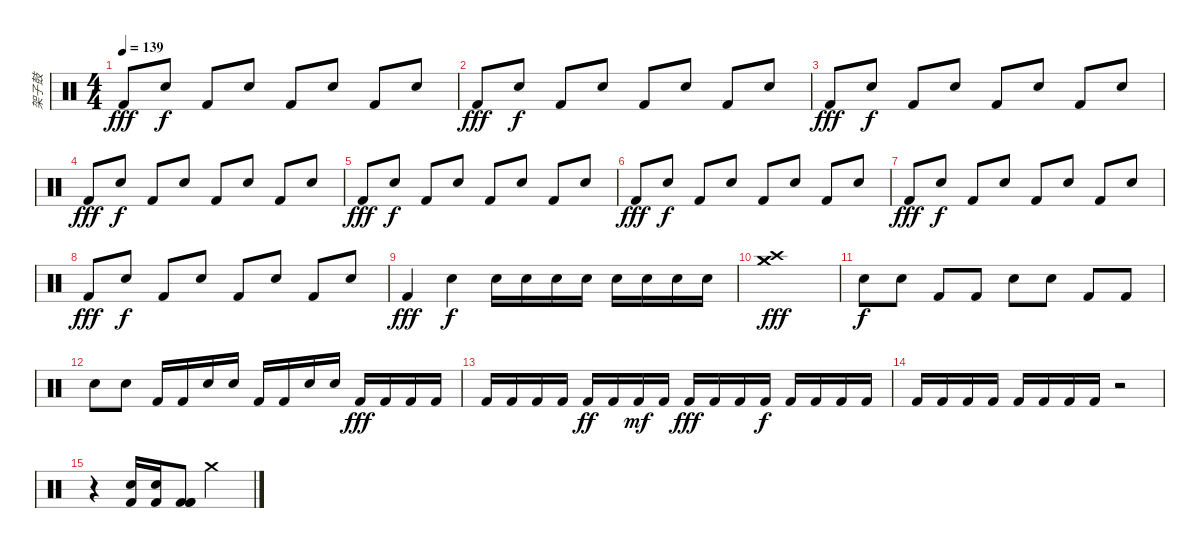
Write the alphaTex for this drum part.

\track ("架子鼓" "架子鼓") {instrument percussion}
\staff {score}
\articulation defaults
\ts (4 4)
\tempo 139
\clef neutral
\ks c "Kick (hit) 2".8{dy fff} "Electric Snare (hit)".8{dy f} "Kick (hit) 2".8 "Electric Snare (hit)".8 "Kick (hit) 2".8 "Electric Snare (hit)".8 "Kick (hit) 2".8 "Electric Snare (hit)".8
|
"Kick (hit) 2".8{dy fff} "Electric Snare (hit)".8{dy f} "Kick (hit) 2".8 "Electric Snare (hit)".8 "Kick (hit) 2".8 "Electric Snare (hit)".8 "Kick (hit) 2".8 "Electric Snare (hit)".8 |
"Kick (hit) 2".8{dy fff} "Electric Snare (hit)".8{dy f} "Kick (hit) 2".8 "Electric Snare (hit)".8 "Kick (hit) 2".8 "Electric Snare (hit)".8 "Kick (hit) 2".8 "Electric Snare (hit)".8 |
"Kick (hit) 2".8{dy fff} "Electric Snare (hit)".8{dy f} "Kick (hit) 2".8 "Electric Snare (hit)".8 "Kick (hit) 2".8 "Electric Snare (hit)".8 "Kick (hit) 2".8 "Electric Snare (hit)".8 |
"Kick (hit) 2".8{dy fff} "Electric Snare (hit)".8{dy f} "Kick (hit) 2".8 "Electric Snare (hit)".8 "Kick (hit) 2".8 "Electric Snare (hit)".8 "Kick (hit) 2".8 "Electric Snare (hit)".8 |
"Kick (hit) 2".8{dy fff} "Electric Snare (hit)".8{dy f} "Kick (hit) 2".8 "Electric Snare (hit)".8 "Kick (hit) 2".8 "Electric Snare (hit)".8 "Kick (hit) 2".8 "Electric Snare (hit)".8 |
"Kick (hit) 2".8{dy fff} "Electric Snare (hit)".8{dy f} "Kick (hit) 2".8 "Electric Snare (hit)".8 "Kick (hit) 2".8 "Electric Snare (hit)".8 "Kick (hit) 2".8 "Electric Snare (hit)".8 |
"Kick (hit) 2".8{dy fff} "Electric Snare (hit)".8{dy f} "Kick (hit) 2".8 "Electric Snare (hit)".8 "Kick (hit) 2".8 "Electric Snare (hit)".8 "Kick (hit) 2".8 "Electric Snare (hit)".8 |
"Kick (hit) 2".4{dy fff} "Electric Snare (hit)".4{dy f} "Electric Snare (hit)".16 "Electric Snare (hit)".16 "Electric Snare (hit)".16 "Electric Snare (hit)".16 "Electric Snare (hit)".16 "Electric Snare (hit)".16 "Electric Snare (hit)".16 "Electric Snare (hit)".16 |
("Crash high (hit)" "Crash medium (hit)" "Crash medium (hit)").1{dy fff} |
"Electric Snare (hit)".8{dy f} "Electric Snare (hit)".8 "Kick (hit) 2".8 "Kick (hit) 2".8 "Electric Snare (hit)".8 "Electric Snare (hit)".8 "Kick (hit) 2".8 "Kick (hit) 2".8 |
"Electric Snare (hit)".8 "Electric Snare (hit)".8 "Kick (hit) 2".16 "Kick (hit) 2".16 "Electric Snare (hit)".16 "Electric Snare (hit)".16 "Kick (hit) 2".16 "Kick (hit) 2".16 "Electric Snare (hit)".16 "Electric Snare (hit)".16 "Kick (hit) 2".16{dy fff} "Kick (hit) 2".16 "Kick (hit) 2".16 "Kick (hit) 2".16 |
"Kick (hit) 2".16 "Kick (hit) 2".16 "Kick (hit) 2".16 "Kick (hit) 2".16 "Kick (hit) 2".16{dy ff} "Kick (hit) 2".16 "Kick (hit) 2".16{dy mf} "Kick (hit) 2".16 "Kick (hit) 2".16{dy fff} "Kick (hit) 2".16 "Kick (hit) 2".16 "Kick (hit) 2".16{dy f} "Kick (hit) 2".16 "Kick (hit) 2".16 "Kick (hit) 2".16 "Kick (hit) 2".16 |
"Kick (hit) 2".16 "Kick (hit) 2".16 "Kick (hit) 2".16 "Kick (hit) 2".16 "Kick (hit) 2".16 "Kick (hit) 2".16 "Kick (hit) 2".16 "Kick (hit) 2".16 r.2 |
r.4 ("Electric Snare (hit)" "Kick (hit) 2").16 ("Electric Snare (hit)" "Kick (hit) 2").16 ("Kick (hit) 2" "Kick (hit) 2" "Kick (hit) 2").8 "Crash medium (hit)".2
